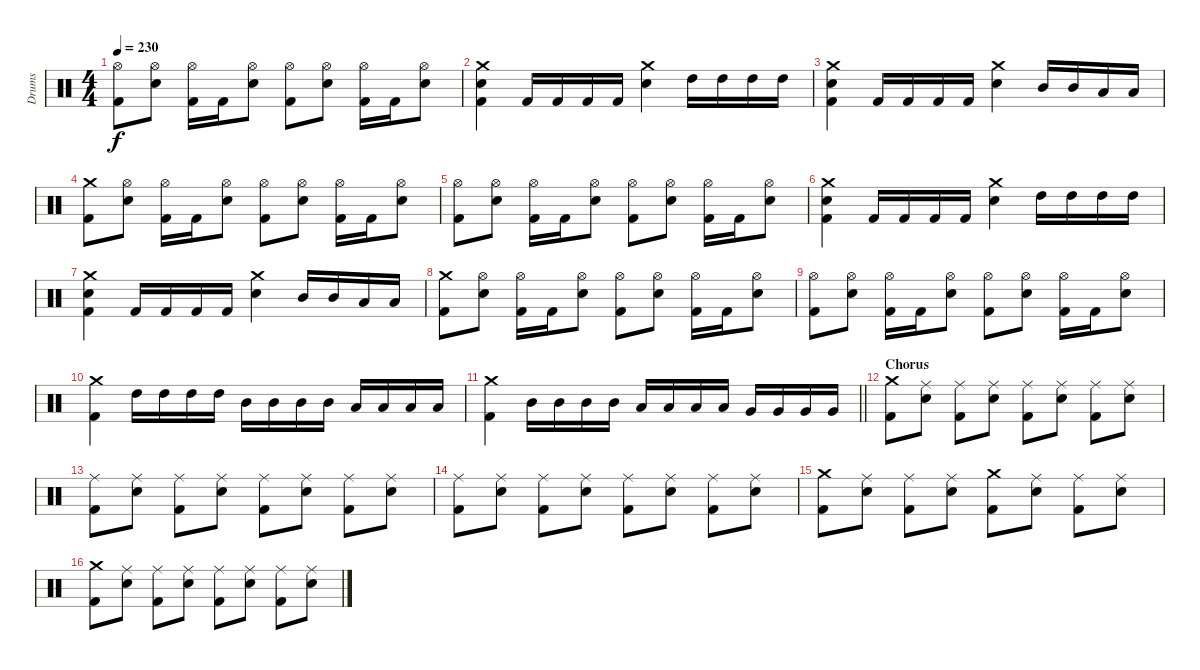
\track ("Drums" "Drums") {instrument percussion}
\staff {score}
\articulation defaults
\ts (4 4)
\tempo 230
\clef neutral
\ks c
("Hi-Hat (open)" "Kick (hit) 2").8{dy f} ("Hi-Hat (open)" "Electric Snare (hit)").8 ("Hi-Hat (open)" "Kick (hit) 2").16 "Kick (hit) 2".16 ("Hi-Hat (open)" "Electric Snare (hit)").8 ("Hi-Hat (open)" "Kick (hit) 2").8 ("Hi-Hat (open)" "Electric Snare (hit)").8 ("Hi-Hat (open)" "Kick (hit) 2").16 "Kick (hit) 2".16 ("Hi-Hat (open)" "Electric Snare (hit)").8 |
("Crash medium (hit)" "Electric Snare (hit)" "Kick (hit) 2").4 "Kick (hit) 2".16 "Kick (hit) 2".16 "Kick (hit) 2".16 "Kick (hit) 2".16 ("Crash medium (hit)" "Electric Snare (hit)").4 "High Tom (hit)".16 "High Tom (hit)".16 "High Tom (hit)".16 "High Tom (hit)".16 |
("Crash medium (hit)" "Electric Snare (hit)" "Kick (hit) 2").4 "Kick (hit) 2".16 "Kick (hit) 2".16 "Kick (hit) 2".16 "Kick (hit) 2".16 ("Crash medium (hit)" "Electric Snare (hit)").4 "Mid Tom (hit)".16 "Mid Tom (hit)".16 "Low Tom (hit)".16 "Low Tom (hit)".16 |
("Crash medium (hit)" "Kick (hit) 2").8 ("Hi-Hat (open)" "Electric Snare (hit)").8 ("Hi-Hat (open)" "Kick (hit) 2").16 "Kick (hit) 2".16 ("Hi-Hat (open)" "Electric Snare (hit)").8 ("Hi-Hat (open)" "Kick (hit) 2").8 ("Hi-Hat (open)" "Electric Snare (hit)").8 ("Hi-Hat (open)" "Kick (hit) 2").16 "Kick (hit) 2".16 ("Hi-Hat (open)" "Electric Snare (hit)").8 |
("Hi-Hat (open)" "Kick (hit) 2").8 ("Hi-Hat (open)" "Electric Snare (hit)").8 ("Hi-Hat (open)" "Kick (hit) 2").16 "Kick (hit) 2".16 ("Hi-Hat (open)" "Electric Snare (hit)").8 ("Hi-Hat (open)" "Kick (hit) 2").8 ("Hi-Hat (open)" "Electric Snare (hit)").8 ("Hi-Hat (open)" "Kick (hit) 2").16 "Kick (hit) 2".16 ("Hi-Hat (open)" "Electric Snare (hit)").8 |
("Crash medium (hit)" "Electric Snare (hit)" "Kick (hit) 2").4 "Kick (hit) 2".16 "Kick (hit) 2".16 "Kick (hit) 2".16 "Kick (hit) 2".16 ("Crash medium (hit)" "Electric Snare (hit)").4 "High Tom (hit)".16 "High Tom (hit)".16 "High Tom (hit)".16 "High Tom (hit)".16 |
("Crash medium (hit)" "Electric Snare (hit)" "Kick (hit) 2").4 "Kick (hit) 2".16 "Kick (hit) 2".16 "Kick (hit) 2".16 "Kick (hit) 2".16 ("Crash medium (hit)" "Electric Snare (hit)").4 "Mid Tom (hit)".16 "Mid Tom (hit)".16 "Low Tom (hit)".16 "Low Tom (hit)".16 |
("Crash medium (hit)" "Kick (hit) 2").8 ("Hi-Hat (open)" "Electric Snare (hit)").8 ("Hi-Hat (open)" "Kick (hit) 2").16 "Kick (hit) 2".16 ("Hi-Hat (open)" "Electric Snare (hit)").8 ("Hi-Hat (open)" "Kick (hit) 2").8 ("Hi-Hat (open)" "Electric Snare (hit)").8 ("Hi-Hat (open)" "Kick (hit) 2").16 "Kick (hit) 2".16 ("Hi-Hat (open)" "Electric Snare (hit)").8 |
("Hi-Hat (open)" "Kick (hit) 2").8 ("Hi-Hat (open)" "Electric Snare (hit)").8 ("Hi-Hat (open)" "Kick (hit) 2").16 "Kick (hit) 2".16 ("Hi-Hat (open)" "Electric Snare (hit)").8 ("Hi-Hat (open)" "Kick (hit) 2").8 ("Hi-Hat (open)" "Electric Snare (hit)").8 ("Hi-Hat (open)" "Kick (hit) 2").16 "Kick (hit) 2".16 ("Hi-Hat (open)" "Electric Snare (hit)").8 |
("Crash medium (hit)" "Kick (hit) 2").4 "High Tom (hit)".16 "High Tom (hit)".16 "High Tom (hit)".16 "High Tom (hit)".16 "Mid Tom (hit)".16 "Mid Tom (hit)".16 "Mid Tom (hit)".16 "Mid Tom (hit)".16 "Low Tom (hit)".16 "Low Tom (hit)".16 "Low Tom (hit)".16 "Low Tom (hit)".16 |
\barLineRight lightlight
("Crash medium (hit)" "Kick (hit) 2").4 "Mid Tom (hit)".16 "Mid Tom (hit)".16 "Mid Tom (hit)".16 "Mid Tom (hit)".16 "Low Tom (hit)".16 "Low Tom (hit)".16 "Low Tom (hit)".16 "Low Tom (hit)".16 "Very Low Tom (hit)".16 "Very Low Tom (hit)".16 "Very Low Tom (hit)".16 "Very Low Tom (hit)".16 |
\section ("" "Chorus")
("Crash medium (hit)" "Kick (hit) 2").8 ("Ride (middle)" "Electric Snare (hit)").8 ("Ride (middle)" "Kick (hit) 2").8 ("Ride (middle)" "Electric Snare (hit)").8 ("Ride (middle)" "Kick (hit) 2").8 ("Ride (middle)" "Electric Snare (hit)").8 ("Ride (middle)" "Kick (hit) 2").8 ("Ride (middle)" "Electric Snare (hit)").8 |
("Ride (middle)" "Kick (hit) 2").8 ("Ride (middle)" "Electric Snare (hit)").8 ("Ride (middle)" "Kick (hit) 2").8 ("Ride (middle)" "Electric Snare (hit)").8 ("Ride (middle)" "Kick (hit) 2").8 ("Ride (middle)" "Electric Snare (hit)").8 ("Ride (middle)" "Kick (hit) 2").8 ("Ride (middle)" "Electric Snare (hit)").8 |
("Ride (middle)" "Kick (hit) 2").8 ("Ride (middle)" "Electric Snare (hit)").8 ("Ride (middle)" "Kick (hit) 2").8 ("Ride (middle)" "Electric Snare (hit)").8 ("Ride (middle)" "Kick (hit) 2").8 ("Ride (middle)" "Electric Snare (hit)").8 ("Ride (middle)" "Kick (hit) 2").8 ("Ride (middle)" "Electric Snare (hit)").8 |
("Crash medium (hit)" "Kick (hit) 2").8 ("Ride (middle)" "Electric Snare (hit)").8 ("Ride (middle)" "Kick (hit) 2").8 ("Ride (middle)" "Electric Snare (hit)").8 ("Crash medium (hit)" "Kick (hit) 2").8 ("Ride (middle)" "Electric Snare (hit)").8 ("Ride (middle)" "Kick (hit) 2").8 ("Ride (middle)" "Electric Snare (hit)").8 |
("Crash medium (hit)" "Kick (hit) 2").8 ("Ride (middle)" "Electric Snare (hit)").8 ("Ride (middle)" "Kick (hit) 2").8 ("Ride (middle)" "Electric Snare (hit)").8 ("Ride (middle)" "Kick (hit) 2").8 ("Ride (middle)" "Electric Snare (hit)").8 ("Ride (middle)" "Kick (hit) 2").8 ("Ride (middle)" "Electric Snare (hit)").8
